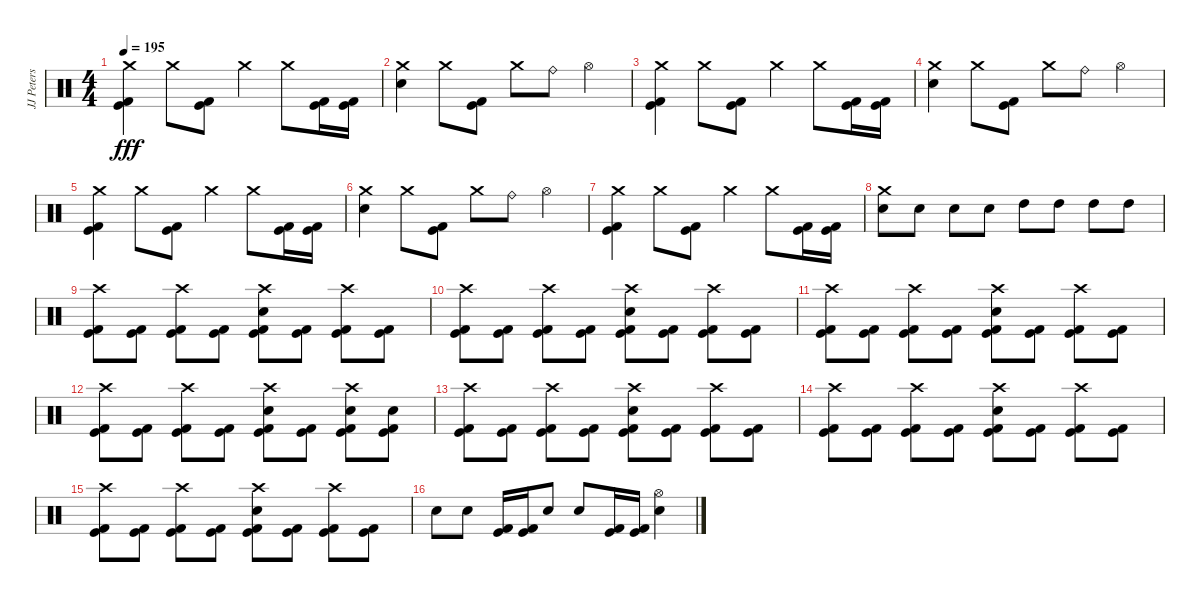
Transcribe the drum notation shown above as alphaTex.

\track ("JJ Peters" "JJ Peters") {instrument percussion}
\staff {score}
\articulation defaults
\ts (4 4)
\tempo 195
\clef neutral
\ks c
("Crash medium (hit)" "Kick (hit)" "Kick (hit) 2").4{dy fff} "Crash medium (hit)".8 ("Kick (hit)" "Kick (hit) 2").8 "Crash medium (hit)".4 "Crash medium (hit)".8 ("Kick (hit)" "Kick (hit) 2").16 ("Kick (hit)" "Kick (hit) 2").16 |
("Crash medium (hit)" "Electric Snare (hit)").4 "Crash medium (hit)".8 ("Kick (hit)" "Kick (hit) 2").8 "Crash medium (hit)".8 "Ride (bell)".8 "Hi-Hat (open)".4 |
("Crash medium (hit)" "Kick (hit)" "Kick (hit) 2").4 "Crash medium (hit)".8 ("Kick (hit)" "Kick (hit) 2").8 "Crash medium (hit)".4 "Crash medium (hit)".8 ("Kick (hit)" "Kick (hit) 2").16 ("Kick (hit)" "Kick (hit) 2").16 |
("Crash medium (hit)" "Electric Snare (hit)").4 "Crash medium (hit)".8 ("Kick (hit)" "Kick (hit) 2").8 "Crash medium (hit)".8 "Ride (bell)".8 "Hi-Hat (open)".4 |
("Crash medium (hit)" "Kick (hit)" "Kick (hit) 2").4 "Crash medium (hit)".8 ("Kick (hit)" "Kick (hit) 2").8 "Crash medium (hit)".4 "Crash medium (hit)".8 ("Kick (hit)" "Kick (hit) 2").16 ("Kick (hit)" "Kick (hit) 2").16 |
("Crash medium (hit)" "Electric Snare (hit)").4 "Crash medium (hit)".8 ("Kick (hit)" "Kick (hit) 2").8 "Crash medium (hit)".8 "Ride (bell)".8 "Hi-Hat (open)".4 |
("Crash medium (hit)" "Kick (hit)" "Kick (hit) 2").4 "Crash medium (hit)".8 ("Kick (hit)" "Kick (hit) 2").8 "Crash medium (hit)".4 "Crash medium (hit)".8 ("Kick (hit)" "Kick (hit) 2").16 ("Kick (hit)" "Kick (hit) 2").16 |
("Crash medium (hit)" "Electric Snare (hit)").8 "Electric Snare (hit)".8 "Electric Snare (hit)".8 "Electric Snare (hit)".8 "High Tom (hit)".8 "High Tom (hit)".8 "High Tom (hit)".8 "High Tom (hit)".8 |
("Crash high (hit)" "Kick (hit)" "Kick (hit) 2").8 ("Kick (hit)" "Kick (hit) 2").8 ("Crash high (hit)" "Kick (hit)" "Kick (hit) 2").8 ("Kick (hit)" "Kick (hit) 2").8 ("Crash high (hit)" "Electric Snare (hit)" "Kick (hit)" "Kick (hit) 2").8 ("Kick (hit)" "Kick (hit) 2").8 ("Crash high (hit)" "Kick (hit)" "Kick (hit) 2").8 ("Kick (hit)" "Kick (hit) 2").8 |
("Crash high (hit)" "Kick (hit)" "Kick (hit) 2").8 ("Kick (hit)" "Kick (hit) 2").8 ("Crash high (hit)" "Kick (hit)" "Kick (hit) 2").8 ("Kick (hit)" "Kick (hit) 2").8 ("Crash high (hit)" "Electric Snare (hit)" "Kick (hit)" "Kick (hit) 2").8 ("Kick (hit)" "Kick (hit) 2").8 ("Crash high (hit)" "Kick (hit)" "Kick (hit) 2").8 ("Kick (hit)" "Kick (hit) 2").8 |
("Crash high (hit)" "Kick (hit)" "Kick (hit) 2").8 ("Kick (hit)" "Kick (hit) 2").8 ("Crash high (hit)" "Kick (hit)" "Kick (hit) 2").8 ("Kick (hit)" "Kick (hit) 2").8 ("Crash high (hit)" "Electric Snare (hit)" "Kick (hit)" "Kick (hit) 2").8 ("Kick (hit)" "Kick (hit) 2").8 ("Crash high (hit)" "Kick (hit)" "Kick (hit) 2").8 ("Kick (hit)" "Kick (hit) 2").8 |
("Crash high (hit)" "Kick (hit)" "Kick (hit) 2").8 ("Kick (hit)" "Kick (hit) 2").8 ("Crash high (hit)" "Kick (hit)" "Kick (hit) 2").8 ("Kick (hit)" "Kick (hit) 2").8 ("Crash high (hit)" "Electric Snare (hit)" "Kick (hit)" "Kick (hit) 2").8 ("Kick (hit)" "Kick (hit) 2").8 ("Crash high (hit)" "Electric Snare (hit)" "Kick (hit)" "Kick (hit) 2").8 ("Electric Snare (hit)" "Kick (hit)" "Kick (hit) 2").8 |
("Crash high (hit)" "Kick (hit)" "Kick (hit) 2").8 ("Kick (hit)" "Kick (hit) 2").8 ("Crash high (hit)" "Kick (hit)" "Kick (hit) 2").8 ("Kick (hit)" "Kick (hit) 2").8 ("Crash high (hit)" "Electric Snare (hit)" "Kick (hit)" "Kick (hit) 2").8 ("Kick (hit)" "Kick (hit) 2").8 ("Crash high (hit)" "Kick (hit)" "Kick (hit) 2").8 ("Kick (hit)" "Kick (hit) 2").8 |
("Crash high (hit)" "Kick (hit)" "Kick (hit) 2").8 ("Kick (hit)" "Kick (hit) 2").8 ("Crash high (hit)" "Kick (hit)" "Kick (hit) 2").8 ("Kick (hit)" "Kick (hit) 2").8 ("Crash high (hit)" "Electric Snare (hit)" "Kick (hit)" "Kick (hit) 2").8 ("Kick (hit)" "Kick (hit) 2").8 ("Crash high (hit)" "Kick (hit)" "Kick (hit) 2").8 ("Kick (hit)" "Kick (hit) 2").8 |
("Crash high (hit)" "Kick (hit)" "Kick (hit) 2").8 ("Kick (hit)" "Kick (hit) 2").8 ("Crash high (hit)" "Kick (hit)" "Kick (hit) 2").8 ("Kick (hit)" "Kick (hit) 2").8 ("Crash high (hit)" "Electric Snare (hit)" "Kick (hit)" "Kick (hit) 2").8 ("Kick (hit)" "Kick (hit) 2").8 ("Crash high (hit)" "Kick (hit)" "Kick (hit) 2").8 ("Kick (hit)" "Kick (hit) 2").8 |
"Electric Snare (hit)".8 "Electric Snare (hit)".8 ("Kick (hit)" "Kick (hit) 2").16 ("Kick (hit)" "Kick (hit) 2").16 "Electric Snare (hit)".8 "Electric Snare (hit)".8 ("Kick (hit)" "Kick (hit) 2").16 ("Kick (hit)" "Kick (hit) 2").16 ("Hi-Hat (open)" "Electric Snare (hit)").4
